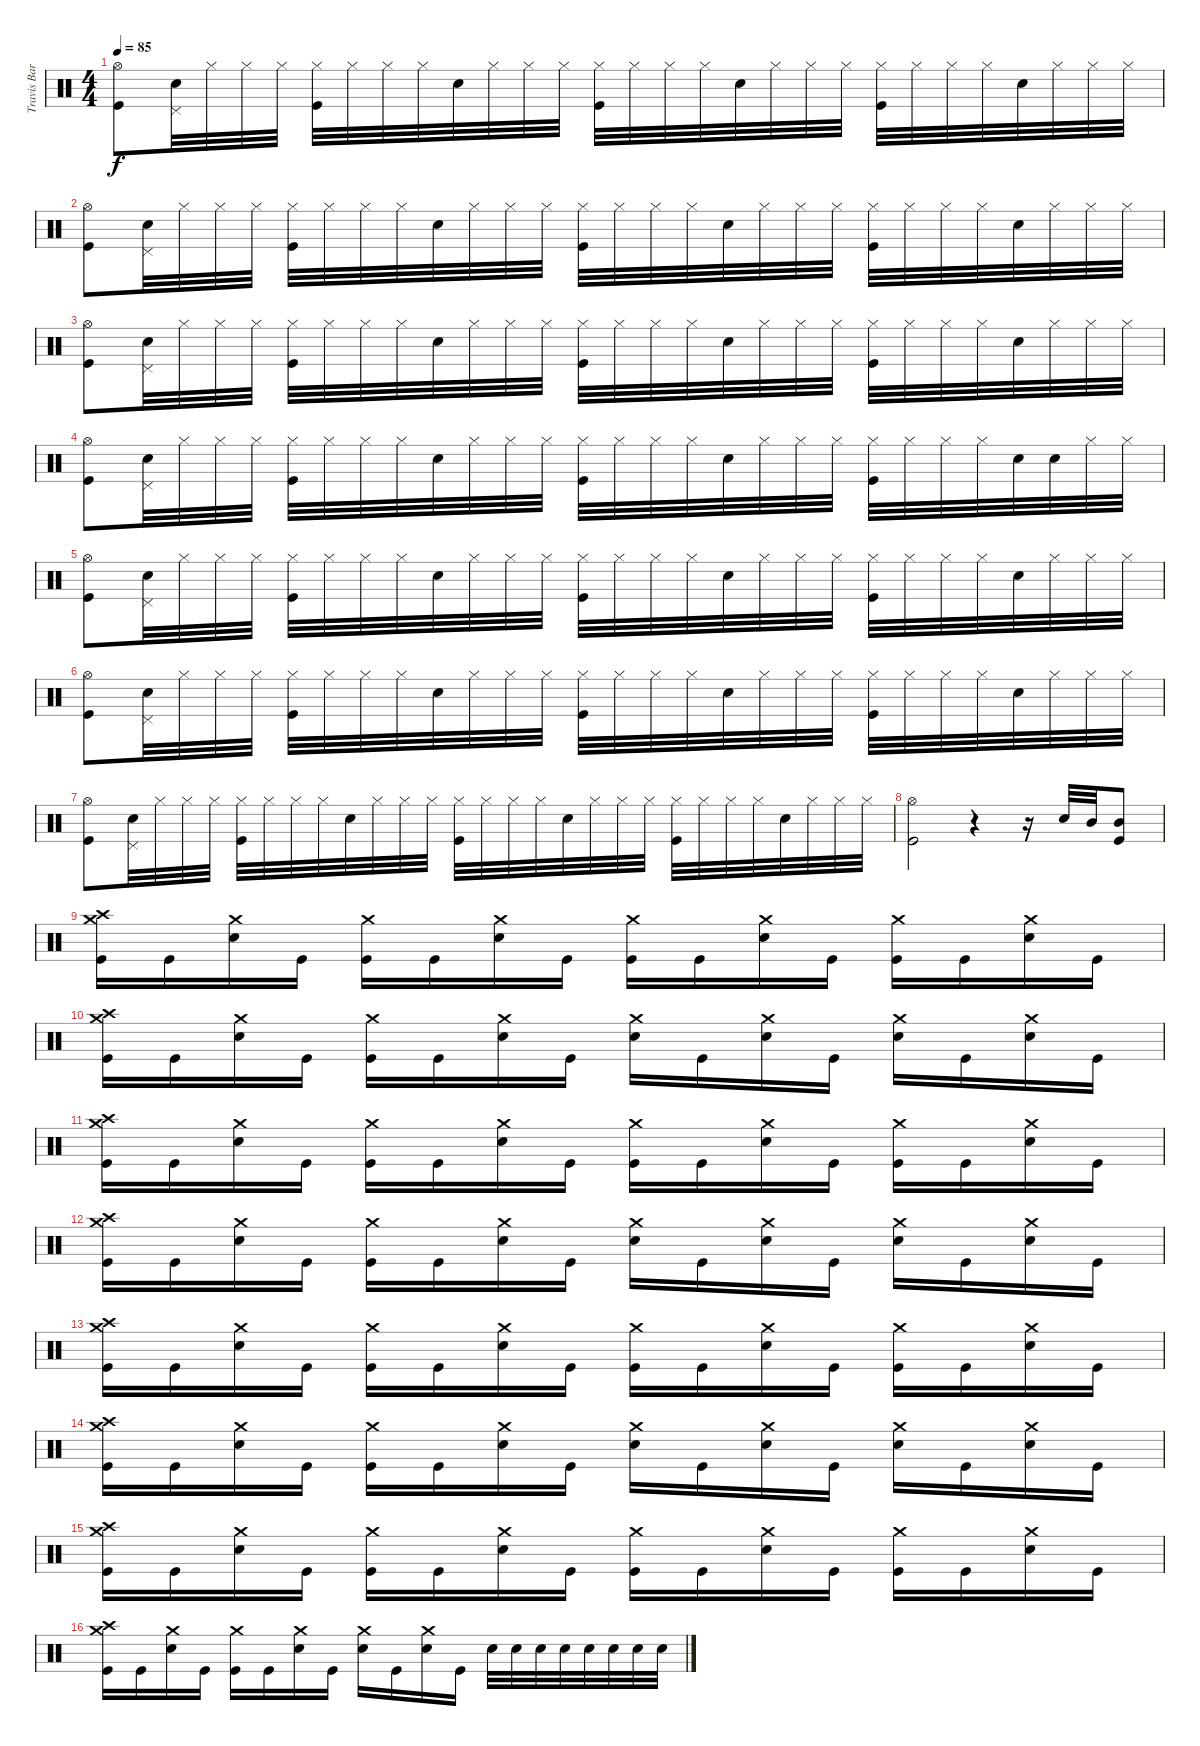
\track ("Travis Barker" "Travis Bar") {instrument percussion}
\staff {score}
\articulation defaults
\ts (4 4)
\tempo 85
\clef neutral
\ks c
("Hi-Hat (open)" "Kick (hit)").8{dy f} ("Electric Snare (hit)" "Pedal Hi-Hat (hit)").32 "Hi-Hat (closed)".32 "Hi-Hat (closed)".32 "Hi-Hat (closed)".32 ("Hi-Hat (closed)" "Kick (hit)").32 "Hi-Hat (closed)".32 "Hi-Hat (closed)".32 "Hi-Hat (closed)".32 "Electric Snare (hit)".32 "Hi-Hat (closed)".32 "Hi-Hat (closed)".32 "Hi-Hat (closed)".32 ("Hi-Hat (closed)" "Kick (hit)").32 "Hi-Hat (closed)".32 "Hi-Hat (closed)".32 "Hi-Hat (closed)".32 "Electric Snare (hit)".32 "Hi-Hat (closed)".32 "Hi-Hat (closed)".32 "Hi-Hat (closed)".32 ("Hi-Hat (closed)" "Kick (hit)").32 "Hi-Hat (closed)".32 "Hi-Hat (closed)".32 "Hi-Hat (closed)".32 "Electric Snare (hit)".32 "Hi-Hat (closed)".32 "Hi-Hat (closed)".32 "Hi-Hat (closed)".32 |
("Hi-Hat (open)" "Kick (hit)").8 ("Electric Snare (hit)" "Pedal Hi-Hat (hit)").32 "Hi-Hat (closed)".32 "Hi-Hat (closed)".32 "Hi-Hat (closed)".32 ("Hi-Hat (closed)" "Kick (hit)").32 "Hi-Hat (closed)".32 "Hi-Hat (closed)".32 "Hi-Hat (closed)".32 "Electric Snare (hit)".32 "Hi-Hat (closed)".32 "Hi-Hat (closed)".32 "Hi-Hat (closed)".32 ("Hi-Hat (closed)" "Kick (hit)").32 "Hi-Hat (closed)".32 "Hi-Hat (closed)".32 "Hi-Hat (closed)".32 "Electric Snare (hit)".32 "Hi-Hat (closed)".32 "Hi-Hat (closed)".32 "Hi-Hat (closed)".32 ("Hi-Hat (closed)" "Kick (hit)").32 "Hi-Hat (closed)".32 "Hi-Hat (closed)".32 "Hi-Hat (closed)".32 "Electric Snare (hit)".32 "Hi-Hat (closed)".32 "Hi-Hat (closed)".32 "Hi-Hat (closed)".32 |
("Hi-Hat (open)" "Kick (hit)").8 ("Electric Snare (hit)" "Pedal Hi-Hat (hit)").32 "Hi-Hat (closed)".32 "Hi-Hat (closed)".32 "Hi-Hat (closed)".32 ("Hi-Hat (closed)" "Kick (hit)").32 "Hi-Hat (closed)".32 "Hi-Hat (closed)".32 "Hi-Hat (closed)".32 "Electric Snare (hit)".32 "Hi-Hat (closed)".32 "Hi-Hat (closed)".32 "Hi-Hat (closed)".32 ("Hi-Hat (closed)" "Kick (hit)").32 "Hi-Hat (closed)".32 "Hi-Hat (closed)".32 "Hi-Hat (closed)".32 "Electric Snare (hit)".32 "Hi-Hat (closed)".32 "Hi-Hat (closed)".32 "Hi-Hat (closed)".32 ("Hi-Hat (closed)" "Kick (hit)").32 "Hi-Hat (closed)".32 "Hi-Hat (closed)".32 "Hi-Hat (closed)".32 "Electric Snare (hit)".32 "Hi-Hat (closed)".32 "Hi-Hat (closed)".32 "Hi-Hat (closed)".32 |
("Hi-Hat (open)" "Kick (hit)").8 ("Electric Snare (hit)" "Pedal Hi-Hat (hit)").32 "Hi-Hat (closed)".32 "Hi-Hat (closed)".32 "Hi-Hat (closed)".32 ("Hi-Hat (closed)" "Kick (hit)").32 "Hi-Hat (closed)".32 "Hi-Hat (closed)".32 "Hi-Hat (closed)".32 "Electric Snare (hit)".32 "Hi-Hat (closed)".32 "Hi-Hat (closed)".32 "Hi-Hat (closed)".32 ("Hi-Hat (closed)" "Kick (hit)").32 "Hi-Hat (closed)".32 "Hi-Hat (closed)".32 "Hi-Hat (closed)".32 "Electric Snare (hit)".32 "Hi-Hat (closed)".32 "Hi-Hat (closed)".32 "Hi-Hat (closed)".32 ("Hi-Hat (closed)" "Kick (hit)").32 "Hi-Hat (closed)".32 "Hi-Hat (closed)".32 "Hi-Hat (closed)".32 "Electric Snare (hit)".32 "Electric Snare (hit)".32 "Hi-Hat (closed)".32 "Hi-Hat (closed)".32 |
("Hi-Hat (open)" "Kick (hit)").8 ("Electric Snare (hit)" "Pedal Hi-Hat (hit)").32 "Hi-Hat (closed)".32 "Hi-Hat (closed)".32 "Hi-Hat (closed)".32 ("Hi-Hat (closed)" "Kick (hit)").32 "Hi-Hat (closed)".32 "Hi-Hat (closed)".32 "Hi-Hat (closed)".32 "Electric Snare (hit)".32 "Hi-Hat (closed)".32 "Hi-Hat (closed)".32 "Hi-Hat (closed)".32 ("Hi-Hat (closed)" "Kick (hit)").32 "Hi-Hat (closed)".32 "Hi-Hat (closed)".32 "Hi-Hat (closed)".32 "Electric Snare (hit)".32 "Hi-Hat (closed)".32 "Hi-Hat (closed)".32 "Hi-Hat (closed)".32 ("Hi-Hat (closed)" "Kick (hit)").32 "Hi-Hat (closed)".32 "Hi-Hat (closed)".32 "Hi-Hat (closed)".32 "Electric Snare (hit)".32 "Hi-Hat (closed)".32 "Hi-Hat (closed)".32 "Hi-Hat (closed)".32 |
("Hi-Hat (open)" "Kick (hit)").8 ("Electric Snare (hit)" "Pedal Hi-Hat (hit)").32 "Hi-Hat (closed)".32 "Hi-Hat (closed)".32 "Hi-Hat (closed)".32 ("Hi-Hat (closed)" "Kick (hit)").32 "Hi-Hat (closed)".32 "Hi-Hat (closed)".32 "Hi-Hat (closed)".32 "Electric Snare (hit)".32 "Hi-Hat (closed)".32 "Hi-Hat (closed)".32 "Hi-Hat (closed)".32 ("Hi-Hat (closed)" "Kick (hit)").32 "Hi-Hat (closed)".32 "Hi-Hat (closed)".32 "Hi-Hat (closed)".32 "Electric Snare (hit)".32 "Hi-Hat (closed)".32 "Hi-Hat (closed)".32 "Hi-Hat (closed)".32 ("Hi-Hat (closed)" "Kick (hit)").32 "Hi-Hat (closed)".32 "Hi-Hat (closed)".32 "Hi-Hat (closed)".32 "Electric Snare (hit)".32 "Hi-Hat (closed)".32 "Hi-Hat (closed)".32 "Hi-Hat (closed)".32 |
("Hi-Hat (open)" "Kick (hit)").8 ("Electric Snare (hit)" "Pedal Hi-Hat (hit)").32 "Hi-Hat (closed)".32 "Hi-Hat (closed)".32 "Hi-Hat (closed)".32 ("Hi-Hat (closed)" "Kick (hit)").32 "Hi-Hat (closed)".32 "Hi-Hat (closed)".32 "Hi-Hat (closed)".32 "Electric Snare (hit)".32 "Hi-Hat (closed)".32 "Hi-Hat (closed)".32 "Hi-Hat (closed)".32 ("Hi-Hat (closed)" "Kick (hit)").32 "Hi-Hat (closed)".32 "Hi-Hat (closed)".32 "Hi-Hat (closed)".32 "Electric Snare (hit)".32 "Hi-Hat (closed)".32 "Hi-Hat (closed)".32 "Hi-Hat (closed)".32 ("Hi-Hat (closed)" "Kick (hit)").32 "Hi-Hat (closed)".32 "Hi-Hat (closed)".32 "Hi-Hat (closed)".32 "Electric Snare (hit)".32 "Hi-Hat (closed)".32 "Hi-Hat (closed)".32 "Hi-Hat (closed)".32 |
("Hi-Hat (open)" "Kick (hit)").2 r.4 r.16 "Electric Snare (hit)".32 "Mid Tom (hit)".32 ("Mid Tom (hit)" "Kick (hit)").8 |
("Crash high (hit)" "Crash medium (hit)" "Kick (hit)").16 "Kick (hit)".16 ("Crash medium (hit)" "Electric Snare (hit)").16 "Kick (hit)".16 ("Crash medium (hit)" "Kick (hit)").16 "Kick (hit)".16 ("Crash medium (hit)" "Electric Snare (hit)").16 "Kick (hit)".16 ("Crash medium (hit)" "Kick (hit)").16 "Kick (hit)".16 ("Crash medium (hit)" "Electric Snare (hit)").16 "Kick (hit)".16 ("Crash medium (hit)" "Kick (hit)").16 "Kick (hit)".16 ("Crash medium (hit)" "Electric Snare (hit)").16 "Kick (hit)".16 |
("Crash high (hit)" "Crash medium (hit)" "Kick (hit)").16 "Kick (hit)".16 ("Crash medium (hit)" "Electric Snare (hit)").16 "Kick (hit)".16 ("Crash medium (hit)" "Kick (hit)").16 "Kick (hit)".16 ("Crash medium (hit)" "Electric Snare (hit)").16 "Kick (hit)".16 ("Crash medium (hit)" "Electric Snare (hit)").16 "Kick (hit)".16 ("Crash medium (hit)" "Electric Snare (hit)").16 "Kick (hit)".16 ("Crash medium (hit)" "Electric Snare (hit)").16 "Kick (hit)".16 ("Crash medium (hit)" "Electric Snare (hit)").16 "Kick (hit)".16 |
("Crash high (hit)" "Crash medium (hit)" "Kick (hit)").16 "Kick (hit)".16 ("Crash medium (hit)" "Electric Snare (hit)").16 "Kick (hit)".16 ("Crash medium (hit)" "Kick (hit)").16 "Kick (hit)".16 ("Crash medium (hit)" "Electric Snare (hit)").16 "Kick (hit)".16 ("Crash medium (hit)" "Kick (hit)").16 "Kick (hit)".16 ("Crash medium (hit)" "Electric Snare (hit)").16 "Kick (hit)".16 ("Crash medium (hit)" "Kick (hit)").16 "Kick (hit)".16 ("Crash medium (hit)" "Electric Snare (hit)").16 "Kick (hit)".16 |
("Crash high (hit)" "Crash medium (hit)" "Kick (hit)").16 "Kick (hit)".16 ("Crash medium (hit)" "Electric Snare (hit)").16 "Kick (hit)".16 ("Crash medium (hit)" "Kick (hit)").16 "Kick (hit)".16 ("Crash medium (hit)" "Electric Snare (hit)").16 "Kick (hit)".16 ("Crash medium (hit)" "Electric Snare (hit)").16 "Kick (hit)".16 ("Crash medium (hit)" "Electric Snare (hit)").16 "Kick (hit)".16 ("Crash medium (hit)" "Electric Snare (hit)").16 "Kick (hit)".16 ("Crash medium (hit)" "Electric Snare (hit)").16 "Kick (hit)".16 |
("Crash high (hit)" "Crash medium (hit)" "Kick (hit)").16 "Kick (hit)".16 ("Crash medium (hit)" "Electric Snare (hit)").16 "Kick (hit)".16 ("Crash medium (hit)" "Kick (hit)").16 "Kick (hit)".16 ("Crash medium (hit)" "Electric Snare (hit)").16 "Kick (hit)".16 ("Crash medium (hit)" "Kick (hit)").16 "Kick (hit)".16 ("Crash medium (hit)" "Electric Snare (hit)").16 "Kick (hit)".16 ("Crash medium (hit)" "Kick (hit)").16 "Kick (hit)".16 ("Crash medium (hit)" "Electric Snare (hit)").16 "Kick (hit)".16 |
("Crash high (hit)" "Crash medium (hit)" "Kick (hit)").16 "Kick (hit)".16 ("Crash medium (hit)" "Electric Snare (hit)").16 "Kick (hit)".16 ("Crash medium (hit)" "Kick (hit)").16 "Kick (hit)".16 ("Crash medium (hit)" "Electric Snare (hit)").16 "Kick (hit)".16 ("Crash medium (hit)" "Electric Snare (hit)").16 "Kick (hit)".16 ("Crash medium (hit)" "Electric Snare (hit)").16 "Kick (hit)".16 ("Crash medium (hit)" "Electric Snare (hit)").16 "Kick (hit)".16 ("Crash medium (hit)" "Electric Snare (hit)").16 "Kick (hit)".16 |
("Crash high (hit)" "Crash medium (hit)" "Kick (hit)").16 "Kick (hit)".16 ("Crash medium (hit)" "Electric Snare (hit)").16 "Kick (hit)".16 ("Crash medium (hit)" "Kick (hit)").16 "Kick (hit)".16 ("Crash medium (hit)" "Electric Snare (hit)").16 "Kick (hit)".16 ("Crash medium (hit)" "Kick (hit)").16 "Kick (hit)".16 ("Crash medium (hit)" "Electric Snare (hit)").16 "Kick (hit)".16 ("Crash medium (hit)" "Kick (hit)").16 "Kick (hit)".16 ("Crash medium (hit)" "Electric Snare (hit)").16 "Kick (hit)".16 |
("Crash high (hit)" "Crash medium (hit)" "Kick (hit)").16 "Kick (hit)".16 ("Crash medium (hit)" "Electric Snare (hit)").16 "Kick (hit)".16 ("Crash medium (hit)" "Kick (hit)").16 "Kick (hit)".16 ("Crash medium (hit)" "Electric Snare (hit)").16 "Kick (hit)".16 ("Crash medium (hit)" "Electric Snare (hit)").16 "Kick (hit)".16 ("Crash medium (hit)" "Electric Snare (hit)").16 "Kick (hit)".16 "Electric Snare (hit)".32 "Electric Snare (hit)".32 "Electric Snare (hit)".32 "Electric Snare (hit)".32 "Electric Snare (hit)".32 "Electric Snare (hit)".32 "Electric Snare (hit)".32 "Electric Snare (hit)".32
